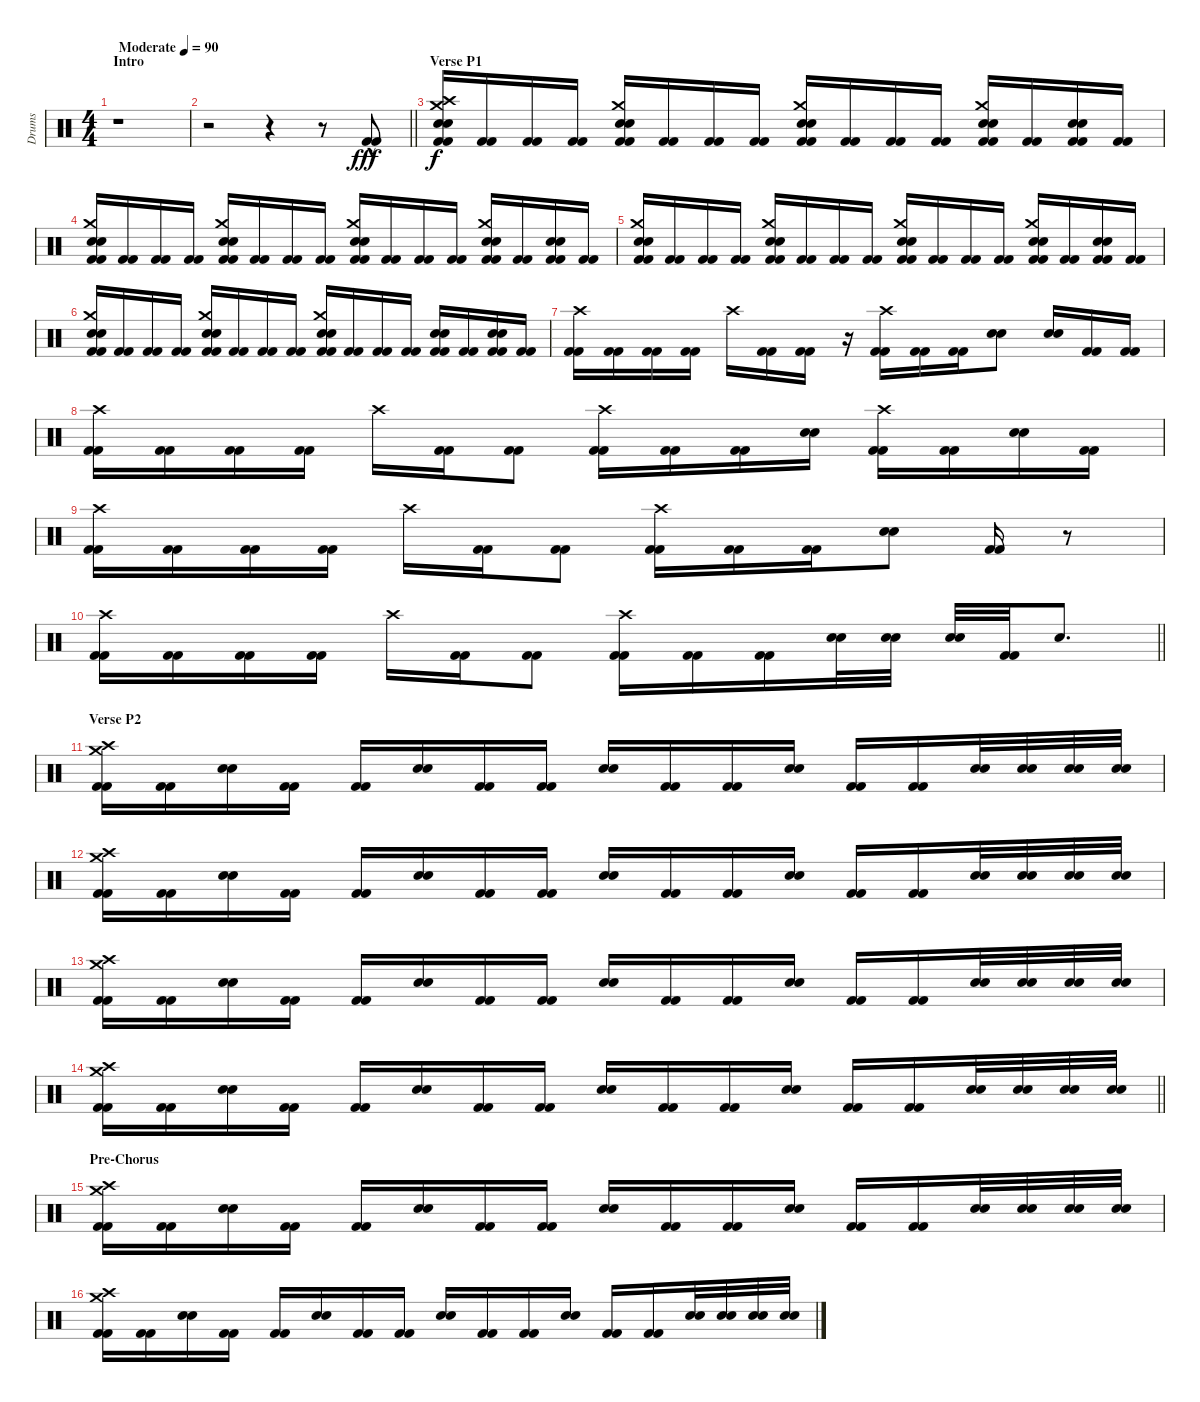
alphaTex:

\track ("Drums" "Drums") {instrument percussion}
\staff {score}
\articulation defaults
\ts (4 4)
\section ("" "Intro")
\tempo (90 "Moderate")
\clef neutral
\ks c
r.1{dy fff} |
\barLineRight lightlight
r.2 r.4 r.8 ("Kick (hit) 2"{hac} "Kick (hit) 2"{hac}).8 |
\section ("" "Verse P1")
("Crash high (hit)" "Crash medium (hit)" "Electric Snare (hit)" "Electric Snare (hit)" "Kick (hit) 2" "Kick (hit) 2").16{dy f} ("Kick (hit) 2" "Kick (hit) 2").16 ("Kick (hit) 2" "Kick (hit) 2").16 ("Kick (hit) 2" "Kick (hit) 2").16 ("Crash medium (hit)" "Electric Snare (hit)" "Electric Snare (hit)" "Kick (hit) 2" "Kick (hit) 2").16 ("Kick (hit) 2" "Kick (hit) 2").16 ("Kick (hit) 2" "Kick (hit) 2").16 ("Kick (hit) 2" "Kick (hit) 2").16 ("Crash medium (hit)" "Electric Snare (hit)" "Electric Snare (hit)" "Kick (hit) 2" "Kick (hit) 2").16 ("Kick (hit) 2" "Kick (hit) 2").16 ("Kick (hit) 2" "Kick (hit) 2").16 ("Kick (hit) 2" "Kick (hit) 2").16 ("Crash medium (hit)" "Electric Snare (hit)" "Electric Snare (hit)" "Kick (hit) 2" "Kick (hit) 2").16 ("Kick (hit) 2" "Kick (hit) 2").16 ("Electric Snare (hit)" "Electric Snare (hit)" "Kick (hit) 2" "Kick (hit) 2").16 ("Kick (hit) 2" "Kick (hit) 2").16 |
("Crash medium (hit)" "Electric Snare (hit)" "Electric Snare (hit)" "Kick (hit) 2" "Kick (hit) 2").16 ("Kick (hit) 2" "Kick (hit) 2").16 ("Kick (hit) 2" "Kick (hit) 2").16 ("Kick (hit) 2" "Kick (hit) 2").16 ("Crash medium (hit)" "Electric Snare (hit)" "Electric Snare (hit)" "Kick (hit) 2" "Kick (hit) 2").16 ("Kick (hit) 2" "Kick (hit) 2").16 ("Kick (hit) 2" "Kick (hit) 2").16 ("Kick (hit) 2" "Kick (hit) 2").16 ("Crash medium (hit)" "Electric Snare (hit)" "Electric Snare (hit)" "Kick (hit) 2" "Kick (hit) 2").16 ("Kick (hit) 2" "Kick (hit) 2").16 ("Kick (hit) 2" "Kick (hit) 2").16 ("Kick (hit) 2" "Kick (hit) 2").16 ("Crash medium (hit)" "Electric Snare (hit)" "Electric Snare (hit)" "Kick (hit) 2" "Kick (hit) 2").16 ("Kick (hit) 2" "Kick (hit) 2").16 ("Electric Snare (hit)" "Electric Snare (hit)" "Kick (hit) 2" "Kick (hit) 2").16 ("Kick (hit) 2" "Kick (hit) 2").16 |
("Crash medium (hit)" "Electric Snare (hit)" "Electric Snare (hit)" "Kick (hit) 2" "Kick (hit) 2").16 ("Kick (hit) 2" "Kick (hit) 2").16 ("Kick (hit) 2" "Kick (hit) 2").16 ("Kick (hit) 2" "Kick (hit) 2").16 ("Crash medium (hit)" "Electric Snare (hit)" "Electric Snare (hit)" "Kick (hit) 2" "Kick (hit) 2").16 ("Kick (hit) 2" "Kick (hit) 2").16 ("Kick (hit) 2" "Kick (hit) 2").16 ("Kick (hit) 2" "Kick (hit) 2").16 ("Crash medium (hit)" "Electric Snare (hit)" "Electric Snare (hit)" "Kick (hit) 2" "Kick (hit) 2").16 ("Kick (hit) 2" "Kick (hit) 2").16 ("Kick (hit) 2" "Kick (hit) 2").16 ("Kick (hit) 2" "Kick (hit) 2").16 ("Crash medium (hit)" "Electric Snare (hit)" "Electric Snare (hit)" "Kick (hit) 2" "Kick (hit) 2").16 ("Kick (hit) 2" "Kick (hit) 2").16 ("Electric Snare (hit)" "Electric Snare (hit)" "Kick (hit) 2" "Kick (hit) 2").16 ("Kick (hit) 2" "Kick (hit) 2").16 |
("Crash medium (hit)" "Electric Snare (hit)" "Electric Snare (hit)" "Kick (hit) 2" "Kick (hit) 2").16 ("Kick (hit) 2" "Kick (hit) 2").16 ("Kick (hit) 2" "Kick (hit) 2").16 ("Kick (hit) 2" "Kick (hit) 2").16 ("Crash medium (hit)" "Electric Snare (hit)" "Electric Snare (hit)" "Kick (hit) 2" "Kick (hit) 2").16 ("Kick (hit) 2" "Kick (hit) 2").16 ("Kick (hit) 2" "Kick (hit) 2").16 ("Kick (hit) 2" "Kick (hit) 2").16 ("Crash medium (hit)" "Electric Snare (hit)" "Electric Snare (hit)" "Kick (hit) 2" "Kick (hit) 2").16 ("Kick (hit) 2" "Kick (hit) 2").16 ("Kick (hit) 2" "Kick (hit) 2").16 ("Kick (hit) 2" "Kick (hit) 2").16 ("Electric Snare (hit)" "Electric Snare (hit)" "Kick (hit) 2" "Kick (hit) 2").16 ("Kick (hit) 2" "Kick (hit) 2").16 ("Electric Snare (hit)" "Electric Snare (hit)" "Kick (hit) 2" "Kick (hit) 2").16 ("Kick (hit) 2" "Kick (hit) 2").16 |
("Crash high (hit)" "Kick (hit) 2" "Kick (hit) 2").16 ("Kick (hit) 2" "Kick (hit) 2").16 ("Kick (hit) 2" "Kick (hit) 2").16 ("Kick (hit) 2" "Kick (hit) 2").16 "Crash high (hit)".16 ("Kick (hit) 2" "Kick (hit) 2").16 ("Kick (hit) 2" "Kick (hit) 2").16 r.16 ("Crash high (hit)" "Kick (hit) 2" "Kick (hit) 2").16 ("Kick (hit) 2" "Kick (hit) 2").16 ("Kick (hit) 2" "Kick (hit) 2").16 ("Electric Snare (hit)" "Electric Snare (hit)").8 ("Electric Snare (hit)" "Electric Snare (hit)").16 ("Kick (hit) 2" "Kick (hit) 2").16 ("Kick (hit) 2" "Kick (hit) 2").16 |
("Crash high (hit)" "Kick (hit) 2" "Kick (hit) 2").16 ("Kick (hit) 2" "Kick (hit) 2").16 ("Kick (hit) 2" "Kick (hit) 2").16 ("Kick (hit) 2" "Kick (hit) 2").16 "Crash high (hit)".16 ("Kick (hit) 2" "Kick (hit) 2").16 ("Kick (hit) 2" "Kick (hit) 2").8 ("Crash high (hit)" "Kick (hit) 2" "Kick (hit) 2").16 ("Kick (hit) 2" "Kick (hit) 2").16 ("Kick (hit) 2" "Kick (hit) 2").16 ("Electric Snare (hit)" "Electric Snare (hit)").16 ("Crash high (hit)" "Kick (hit) 2" "Kick (hit) 2").16 ("Kick (hit) 2" "Kick (hit) 2").16 ("Electric Snare (hit)" "Electric Snare (hit)").16 ("Kick (hit) 2" "Kick (hit) 2").16 |
("Crash high (hit)" "Kick (hit) 2" "Kick (hit) 2").16 ("Kick (hit) 2" "Kick (hit) 2").16 ("Kick (hit) 2" "Kick (hit) 2").16 ("Kick (hit) 2" "Kick (hit) 2").16 "Crash high (hit)".16 ("Kick (hit) 2" "Kick (hit) 2").16 ("Kick (hit) 2" "Kick (hit) 2").8 ("Crash high (hit)" "Kick (hit) 2" "Kick (hit) 2").16 ("Kick (hit) 2" "Kick (hit) 2").16 ("Kick (hit) 2" "Kick (hit) 2").16 ("Electric Snare (hit)" "Electric Snare (hit)").8 ("Kick (hit) 2" "Kick (hit) 2").16 r.8 |
\barLineRight lightlight
("Crash high (hit)" "Kick (hit) 2" "Kick (hit) 2").16 ("Kick (hit) 2" "Kick (hit) 2").16 ("Kick (hit) 2" "Kick (hit) 2").16 ("Kick (hit) 2" "Kick (hit) 2").16 "Crash high (hit)".16 ("Kick (hit) 2" "Kick (hit) 2").16 ("Kick (hit) 2" "Kick (hit) 2").8 ("Crash high (hit)" "Kick (hit) 2" "Kick (hit) 2").16 ("Kick (hit) 2" "Kick (hit) 2").16 ("Kick (hit) 2" "Kick (hit) 2").16 ("Electric Snare (hit)" "Electric Snare (hit)").32 ("Electric Snare (hit)" "Electric Snare (hit)").32 ("Electric Snare (hit)" "Electric Snare (hit)").32 ("Kick (hit) 2" "Kick (hit) 2").32 "Electric Snare (hit)".8{d} |
\section ("" "Verse P2")
("Crash medium (hit)" "Crash high (hit)" "Kick (hit) 2" "Kick (hit) 2").16 ("Kick (hit) 2" "Kick (hit) 2").16 ("Electric Snare (hit)" "Electric Snare (hit)").16 ("Kick (hit) 2" "Kick (hit) 2").16 ("Kick (hit) 2" "Kick (hit) 2").16 ("Electric Snare (hit)" "Electric Snare (hit)").16 ("Kick (hit) 2" "Kick (hit) 2").16 ("Kick (hit) 2" "Kick (hit) 2").16 ("Electric Snare (hit)" "Electric Snare (hit)").16 ("Kick (hit) 2" "Kick (hit) 2").16 ("Kick (hit) 2" "Kick (hit) 2").16 ("Electric Snare (hit)" "Electric Snare (hit)").16 ("Kick (hit) 2" "Kick (hit) 2").16 ("Kick (hit) 2" "Kick (hit) 2").16{volume 3} ("Electric Snare (hit)" "Electric Snare (hit)").32{volume 16} ("Electric Snare (hit)" "Electric Snare (hit)").32 ("Electric Snare (hit)" "Electric Snare (hit)").32 ("Electric Snare (hit)" "Electric Snare (hit)").32 |
("Crash medium (hit)" "Crash high (hit)" "Kick (hit) 2" "Kick (hit) 2").16 ("Kick (hit) 2" "Kick (hit) 2").16 ("Electric Snare (hit)" "Electric Snare (hit)").16 ("Kick (hit) 2" "Kick (hit) 2").16 ("Kick (hit) 2" "Kick (hit) 2").16 ("Electric Snare (hit)" "Electric Snare (hit)").16 ("Kick (hit) 2" "Kick (hit) 2").16 ("Kick (hit) 2" "Kick (hit) 2").16 ("Electric Snare (hit)" "Electric Snare (hit)").16 ("Kick (hit) 2" "Kick (hit) 2").16 ("Kick (hit) 2" "Kick (hit) 2").16 ("Electric Snare (hit)" "Electric Snare (hit)").16 ("Kick (hit) 2" "Kick (hit) 2").16 ("Kick (hit) 2" "Kick (hit) 2").16{volume 3} ("Electric Snare (hit)" "Electric Snare (hit)").32{volume 16} ("Electric Snare (hit)" "Electric Snare (hit)").32 ("Electric Snare (hit)" "Electric Snare (hit)").32 ("Electric Snare (hit)" "Electric Snare (hit)").32 |
("Crash high (hit)" "Crash medium (hit)" "Kick (hit) 2" "Kick (hit) 2").16 ("Kick (hit) 2" "Kick (hit) 2").16 ("Electric Snare (hit)" "Electric Snare (hit)").16 ("Kick (hit) 2" "Kick (hit) 2").16 ("Kick (hit) 2" "Kick (hit) 2").16 ("Electric Snare (hit)" "Electric Snare (hit)").16 ("Kick (hit) 2" "Kick (hit) 2").16 ("Kick (hit) 2" "Kick (hit) 2").16 ("Electric Snare (hit)" "Electric Snare (hit)").16 ("Kick (hit) 2" "Kick (hit) 2").16 ("Kick (hit) 2" "Kick (hit) 2").16 ("Electric Snare (hit)" "Electric Snare (hit)").16 ("Kick (hit) 2" "Kick (hit) 2").16 ("Kick (hit) 2" "Kick (hit) 2").16{volume 3} ("Electric Snare (hit)" "Electric Snare (hit)").32{volume 16} ("Electric Snare (hit)" "Electric Snare (hit)").32 ("Electric Snare (hit)" "Electric Snare (hit)").32 ("Electric Snare (hit)" "Electric Snare (hit)").32 |
\barLineRight lightlight
("Crash high (hit)" "Crash medium (hit)" "Kick (hit) 2" "Kick (hit) 2").16 ("Kick (hit) 2" "Kick (hit) 2").16 ("Electric Snare (hit)" "Electric Snare (hit)").16 ("Kick (hit) 2" "Kick (hit) 2").16 ("Kick (hit) 2" "Kick (hit) 2").16 ("Electric Snare (hit)" "Electric Snare (hit)").16 ("Kick (hit) 2" "Kick (hit) 2").16 ("Kick (hit) 2" "Kick (hit) 2").16 ("Electric Snare (hit)" "Electric Snare (hit)").16 ("Kick (hit) 2" "Kick (hit) 2").16 ("Kick (hit) 2" "Kick (hit) 2").16 ("Electric Snare (hit)" "Electric Snare (hit)").16 ("Kick (hit) 2" "Kick (hit) 2").16 ("Kick (hit) 2" "Kick (hit) 2").16{volume 3} ("Electric Snare (hit)" "Electric Snare (hit)").32{volume 16} ("Electric Snare (hit)" "Electric Snare (hit)").32 ("Electric Snare (hit)" "Electric Snare (hit)").32 ("Electric Snare (hit)" "Electric Snare (hit)").32 |
\section ("" "Pre-Chorus")
("Crash high (hit)" "Crash medium (hit)" "Kick (hit) 2" "Kick (hit) 2").16 ("Kick (hit) 2" "Kick (hit) 2").16 ("Electric Snare (hit)" "Electric Snare (hit)").16 ("Kick (hit) 2" "Kick (hit) 2").16 ("Kick (hit) 2" "Kick (hit) 2").16 ("Electric Snare (hit)" "Electric Snare (hit)").16 ("Kick (hit) 2" "Kick (hit) 2").16 ("Kick (hit) 2" "Kick (hit) 2").16 ("Electric Snare (hit)" "Electric Snare (hit)").16 ("Kick (hit) 2" "Kick (hit) 2").16 ("Kick (hit) 2" "Kick (hit) 2").16 ("Electric Snare (hit)" "Electric Snare (hit)").16 ("Kick (hit) 2" "Kick (hit) 2").16 ("Kick (hit) 2" "Kick (hit) 2").16{volume 3} ("Electric Snare (hit)" "Electric Snare (hit)").32{volume 16} ("Electric Snare (hit)" "Electric Snare (hit)").32 ("Electric Snare (hit)" "Electric Snare (hit)").32 ("Electric Snare (hit)" "Electric Snare (hit)").32 |
("Crash medium (hit)" "Crash high (hit)" "Kick (hit) 2" "Kick (hit) 2").16 ("Kick (hit) 2" "Kick (hit) 2").16 ("Electric Snare (hit)" "Electric Snare (hit)").16 ("Kick (hit) 2" "Kick (hit) 2").16 ("Kick (hit) 2" "Kick (hit) 2").16 ("Electric Snare (hit)" "Electric Snare (hit)").16 ("Kick (hit) 2" "Kick (hit) 2").16 ("Kick (hit) 2" "Kick (hit) 2").16 ("Electric Snare (hit)" "Electric Snare (hit)").16 ("Kick (hit) 2" "Kick (hit) 2").16 ("Kick (hit) 2" "Kick (hit) 2").16 ("Electric Snare (hit)" "Electric Snare (hit)").16 ("Kick (hit) 2" "Kick (hit) 2").16 ("Kick (hit) 2" "Kick (hit) 2").16{volume 3} ("Electric Snare (hit)" "Electric Snare (hit)").32{volume 16} ("Electric Snare (hit)" "Electric Snare (hit)").32 ("Electric Snare (hit)" "Electric Snare (hit)").32 ("Electric Snare (hit)" "Electric Snare (hit)").32
